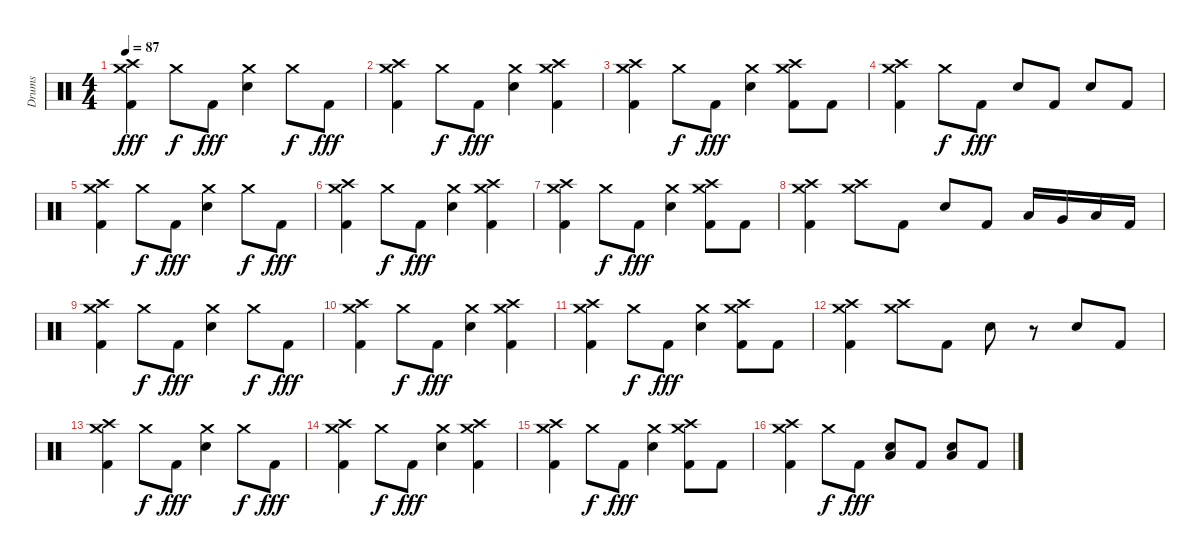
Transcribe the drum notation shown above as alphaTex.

\track ("Drums" "Drums") {instrument percussion}
\staff {score}
\articulation defaults
\ts (4 4)
\tempo 87
\clef neutral
\ks c
("Crash medium (hit)" "Crash high (hit)" "Kick (hit) 2").4{dy fff} "Crash medium (hit)".8{dy f} "Kick (hit) 2".8{dy fff} ("Crash medium (hit)" "Electric Snare (hit)").4 "Crash medium (hit)".8{dy f} "Kick (hit) 2".8{dy fff} |
("Crash medium (hit)" "Crash high (hit)" "Kick (hit) 2").4 "Crash medium (hit)".8{dy f} "Kick (hit) 2".8{dy fff} ("Crash medium (hit)" "Electric Snare (hit)").4 ("Crash medium (hit)" "Crash high (hit)" "Kick (hit) 2").4 |
("Crash medium (hit)" "Crash high (hit)" "Kick (hit) 2").4 "Crash medium (hit)".8{dy f} "Kick (hit) 2".8{dy fff} ("Crash medium (hit)" "Electric Snare (hit)").4 ("Crash medium (hit)" "Crash high (hit)" "Kick (hit) 2").8 "Kick (hit) 2".8 |
("Crash medium (hit)" "Crash high (hit)" "Kick (hit) 2").4 "Crash medium (hit)".8{dy f} "Kick (hit) 2".8{dy fff} "Electric Snare (hit)".8 "Kick (hit) 2".8 "Electric Snare (hit)".8 "Kick (hit) 2".8 |
("Crash medium (hit)" "Crash high (hit)" "Kick (hit) 2").4 "Crash medium (hit)".8{dy f} "Kick (hit) 2".8{dy fff} ("Crash medium (hit)" "Electric Snare (hit)").4 "Crash medium (hit)".8{dy f} "Kick (hit) 2".8{dy fff} |
("Crash medium (hit)" "Crash high (hit)" "Kick (hit) 2").4 "Crash medium (hit)".8{dy f} "Kick (hit) 2".8{dy fff} ("Crash medium (hit)" "Electric Snare (hit)").4 ("Crash medium (hit)" "Crash high (hit)" "Kick (hit) 2").4 |
("Crash medium (hit)" "Crash high (hit)" "Kick (hit) 2").4 "Crash medium (hit)".8{dy f} "Kick (hit) 2".8{dy fff} ("Crash medium (hit)" "Electric Snare (hit)").4 ("Crash medium (hit)" "Crash high (hit)" "Kick (hit) 2").8 "Kick (hit) 2".8 |
("Crash medium (hit)" "Crash high (hit)" "Kick (hit) 2").4 ("Crash medium (hit)" "Crash high (hit)").8 "Kick (hit) 2".8 "Electric Snare (hit)".8 "Kick (hit) 2".8 "Low Tom (hit)".16 "Very Low Tom (hit)".16 "Low Floor Tom (hit)".16 "Kick (hit) 2".16 |
("Crash medium (hit)" "Crash high (hit)" "Kick (hit) 2").4 "Crash medium (hit)".8{dy f} "Kick (hit) 2".8{dy fff} ("Crash medium (hit)" "Electric Snare (hit)").4 "Crash medium (hit)".8{dy f} "Kick (hit) 2".8{dy fff} |
("Crash medium (hit)" "Crash high (hit)" "Kick (hit) 2").4 "Crash medium (hit)".8{dy f} "Kick (hit) 2".8{dy fff} ("Crash medium (hit)" "Electric Snare (hit)").4 ("Crash medium (hit)" "Crash high (hit)" "Kick (hit) 2").4 |
("Crash medium (hit)" "Crash high (hit)" "Kick (hit) 2").4 "Crash medium (hit)".8{dy f} "Kick (hit) 2".8{dy fff} ("Crash medium (hit)" "Electric Snare (hit)").4 ("Crash medium (hit)" "Crash high (hit)" "Kick (hit) 2").8 "Kick (hit) 2".8 |
("Crash medium (hit)" "Crash high (hit)" "Kick (hit) 2").4 ("Crash medium (hit)" "Crash high (hit)").8 "Kick (hit) 2".8 "Electric Snare (hit)".8 r.8 "Electric Snare (hit)".8 "Kick (hit) 2".8 |
("Crash medium (hit)" "Crash high (hit)" "Kick (hit) 2").4 "Crash medium (hit)".8{dy f} "Kick (hit) 2".8{dy fff} ("Crash medium (hit)" "Electric Snare (hit)").4 "Crash medium (hit)".8{dy f} "Kick (hit) 2".8{dy fff} |
("Crash medium (hit)" "Crash high (hit)" "Kick (hit) 2").4 "Crash medium (hit)".8{dy f} "Kick (hit) 2".8{dy fff} ("Crash medium (hit)" "Electric Snare (hit)").4 ("Crash medium (hit)" "Crash high (hit)" "Kick (hit) 2").4 |
("Crash medium (hit)" "Crash high (hit)" "Kick (hit) 2").4 "Crash medium (hit)".8{dy f} "Kick (hit) 2".8{dy fff} ("Crash medium (hit)" "Electric Snare (hit)").4 ("Crash medium (hit)" "Crash high (hit)" "Kick (hit) 2").8 "Kick (hit) 2".8 |
("Crash medium (hit)" "Crash high (hit)" "Kick (hit) 2").4 "Crash medium (hit)".8{dy f} "Kick (hit) 2".8{dy fff} ("Low Floor Tom (hit)" "Electric Snare (hit)").8 "Kick (hit) 2".8 ("Low Floor Tom (hit)" "Electric Snare (hit)").8 "Kick (hit) 2".8
